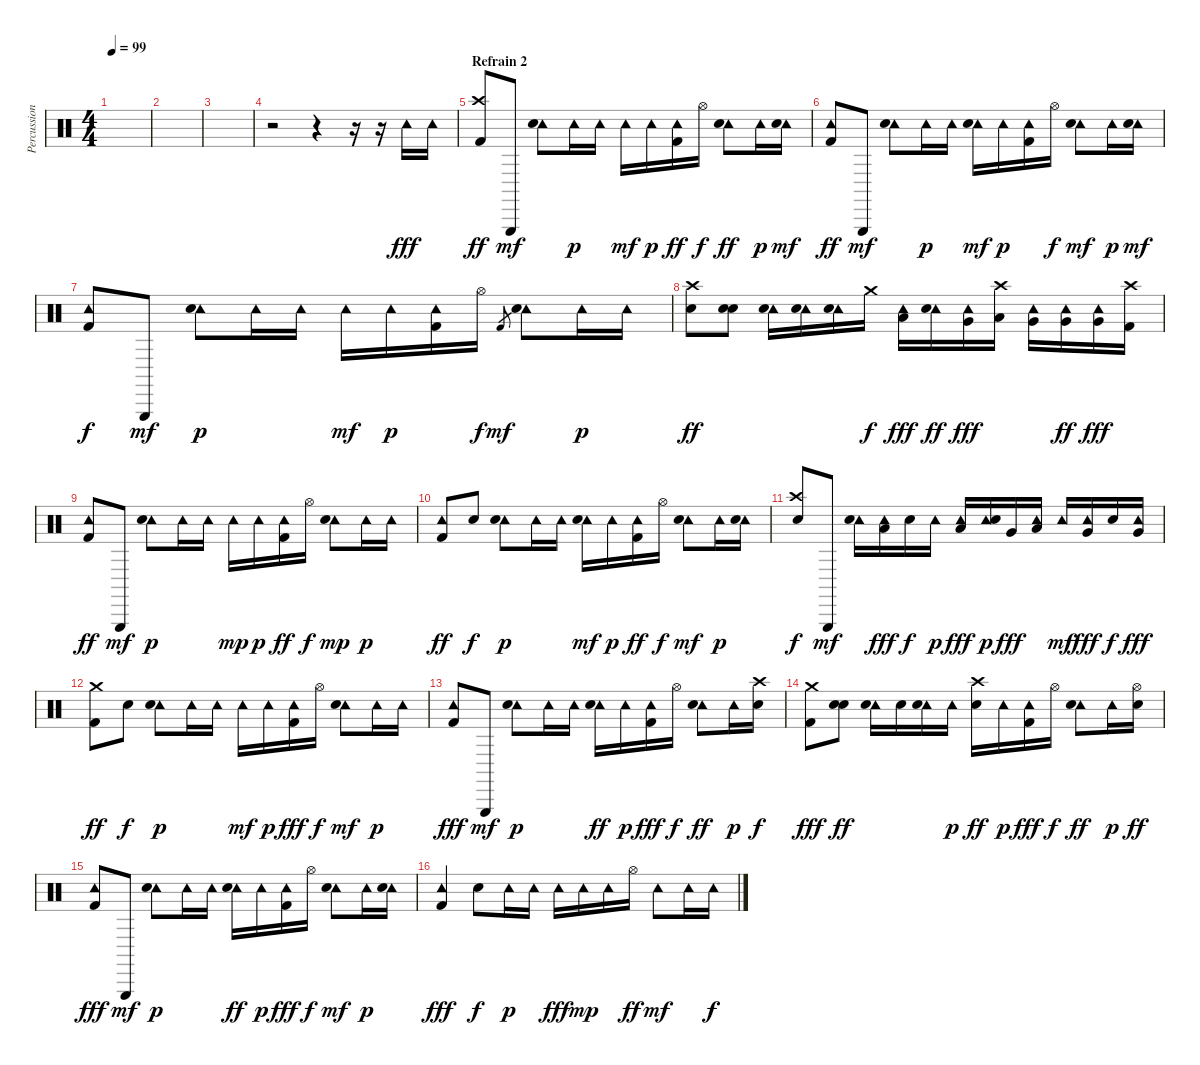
\track ("Percussion" "Percussion") {instrument percussion}
\staff {score}
\articulation defaults
\ts (4 4)
\tempo 99
\clef neutral
\ks c
|
|
|
r.2 r.4 r.16 r.16 "Tambourine (hit)".16{dy fff volume 5} "Tambourine (hit)".16 |
\section ("" "Refrain 2")
("Crash high (hit)" "Kick (hit) 2").8{dy ff volume 9} "Triangle (hit)".8{dy mf} ("Tambourine (hit)" "Snare (hit) 2").8 "Tambourine (hit)".16{dy p} "Tambourine (hit)".16 "Tambourine (hit)".16{dy mf} "Tambourine (hit)".16{dy p} ("Tambourine (hit)" "Kick (hit) 2").16{dy ff} "Hi-Hat (open)".16{dy f} ("Tambourine (hit)" "Snare (hit) 2").8{dy ff} "Tambourine (hit)".16{dy p} ("Tambourine (hit)" "Electric Snare (hit)").16{dy mf} |
("Tambourine (hit)" "Kick (hit) 2").8{dy ff} "Triangle (hit)".8{dy mf} ("Tambourine (hit)" "Snare (hit) 2").8 "Tambourine (hit)".16{dy p} "Tambourine (hit)".16 ("Tambourine (hit)" "Snare (hit) 2").16{dy mf} "Tambourine (hit)".16{dy p} ("Tambourine (hit)" "Kick (hit) 2").16 "Hi-Hat (open)".16{dy f} ("Tambourine (hit)" "Snare (hit) 2").8{dy mf} "Tambourine (hit)".16{dy p} ("Tambourine (hit)" "Electric Snare (hit)").16{dy mf} |
("Tambourine (hit)" "Kick (hit) 2").8{dy f} "Triangle (hit)".8{dy mf} ("Tambourine (hit)" "Snare (hit) 2").8{dy p} "Tambourine (hit)".16 "Tambourine (hit)".16 "Tambourine (hit)".16{dy mf} "Tambourine (hit)".16{dy p} ("Tambourine (hit)" "Kick (hit) 2").16 "Hi-Hat (open)".16{dy f} "Kick (hit) 2".8{gr dy mf} ("Tambourine (hit)" "Snare (hit) 2").8 "Tambourine (hit)".16{dy p} "Tambourine (hit)".16 |
("Crash high (hit)" "Snare (hit) 2").8{dy ff} ("Metronome (bell)" "Electric Snare (hit)").8 ("Tambourine (hit)" "Electric Snare (hit)").16 ("Tambourine (hit)" "Electric Snare (hit)").16 ("Tambourine (hit)" "Electric Snare (hit)").16 "Crash medium (hit)".16{dy f} ("Tambourine (hit)" "Low Tom (hit)").16{dy fff} ("Tambourine (hit)" "Electric Snare (hit)").16{dy ff} ("Tambourine (hit)" "Very Low Tom (hit)").16{dy fff} ("Crash high (hit)"{pm} "Low Tom (hit)").16 ("Tambourine (hit)" "Very Low Tom (hit)").16 ("Tambourine (hit)" "Very Low Tom (hit)").16{dy ff} ("Tambourine (hit)" "Very Low Tom (hit)").16{dy fff} ("Crash high (hit)" "Kick (hit) 2").16 |
("Tambourine (hit)" "Kick (hit) 2").8{dy ff} "Triangle (hit)".8{dy mf} ("Tambourine (hit)" "Snare (hit) 2").8{dy p} "Tambourine (hit)".16 "Tambourine (hit)".16 "Tambourine (hit)".16{dy mp} "Tambourine (hit)".16{dy p} ("Tambourine (hit)" "Kick (hit) 2").16{dy ff} "Hi-Hat (open)".16{dy f} ("Tambourine (hit)" "Snare (hit) 2").8{dy mp} "Tambourine (hit)".16{dy p} "Tambourine (hit)".16 |
("Tambourine (hit)" "Kick (hit) 2").8{dy ff} "Metronome (bell)".8{dy f} ("Tambourine (hit)" "Snare (hit) 2").8{dy p} "Tambourine (hit)".16 "Tambourine (hit)".16 ("Tambourine (hit)" "Snare (hit) 2").16{dy mf} "Tambourine (hit)".16{dy p} ("Tambourine (hit)" "Kick (hit) 2").16{dy ff} "Hi-Hat (open)".16{dy f} ("Tambourine (hit)" "Snare (hit) 2").8{dy mf} "Tambourine (hit)".16{dy p} ("Tambourine (hit)" "Electric Snare (hit)").16 |
("Crash high (hit)" "Snare (hit) 2").8{dy f} "Triangle (hit)".8{dy mf} ("Tambourine (hit)" "Electric Snare (hit)").16 ("Tambourine (hit)" "Low Tom (hit)").16{dy fff} "Electric Snare (hit)".16{dy f} "Tambourine (hit)".16{dy p} ("Tambourine (hit)" "Low Tom (hit)").16{dy fff} ("Tambourine (hit)" "Electric Snare (hit)").16{dy p} "Very Low Tom (hit)".16{dy fff} ("Tambourine (hit)" "Low Tom (hit)").16 "Tambourine (hit)".16{dy mf} ("Tambourine (hit)" "Very Low Tom (hit)").16{dy fff} "Electric Snare (hit)".16{dy f} ("Tambourine (hit)" "Very Low Tom (hit)").16{dy fff} |
("Crash medium (hit)" "Kick (hit) 2").8{dy ff} "Metronome (bell)".8{dy f} ("Tambourine (hit)" "Snare (hit) 2").8{dy p} "Tambourine (hit)".16 "Tambourine (hit)".16 "Tambourine (hit)".16{dy mf} "Tambourine (hit)".16{dy p} ("Tambourine (hit)" "Kick (hit) 2").16{dy fff} "Hi-Hat (open)".16{dy f} ("Tambourine (hit)" "Snare (hit) 2").8{dy mf} "Tambourine (hit)".16{dy p} "Tambourine (hit)".16 |
("Tambourine (hit)" "Kick (hit) 2").8{dy fff} "Triangle (hit)".8{dy mf} ("Tambourine (hit)" "Snare (hit) 2").8{dy p} "Tambourine (hit)".16 "Tambourine (hit)".16 ("Tambourine (hit)" "Snare (hit) 2").16{dy ff} "Tambourine (hit)".16{dy p} ("Tambourine (hit)" "Kick (hit) 2").16{dy fff} "Hi-Hat (open)".16{dy f} ("Tambourine (hit)" "Snare (hit) 2").8{dy ff} "Tambourine (hit)".16{dy p} ("Crash high (hit)" "Snare (hit) 2").16{dy f} |
("Crash medium (hit)" "Kick (hit) 2").8{dy fff} ("Metronome (bell)" "Snare (hit) 2").8{dy ff} ("Tambourine (hit)" "Snare (hit) 2").16 "Electric Snare (hit)".16 ("Tambourine (hit)" "Snare (hit) 2").16 "Tambourine (hit)".16{dy p} ("Crash high (hit)" "Snare (hit) 2").16{dy ff} "Tambourine (hit)".16{dy p} ("Tambourine (hit)" "Kick (hit) 2").16{dy fff} "Hi-Hat (open)".16{dy f} ("Tambourine (hit)" "Snare (hit) 2").8{dy ff} "Tambourine (hit)".16{dy p} ("Hi-Hat (open)" "Snare (hit) 2").16{dy ff} |
("Tambourine (hit)" "Kick (hit) 2").8{dy fff} "Triangle (hit)".8{dy mf} ("Tambourine (hit)" "Snare (hit) 2").8{dy p} "Tambourine (hit)".16 "Tambourine (hit)".16 ("Tambourine (hit)" "Snare (hit) 2").16{dy ff} "Tambourine (hit)".16{dy p} ("Tambourine (hit)" "Kick (hit) 2").16{dy fff} "Hi-Hat (open)".16{dy f} ("Tambourine (hit)" "Snare (hit) 2").8{dy mf} "Tambourine (hit)".16{dy p} ("Tambourine (hit)" "Snare (hit) 2").16 |
("Tambourine (hit)" "Kick (hit) 2").4{dy fff volume 5} "Metronome (bell)".8{dy f} "Tambourine (hit)".16{dy p} "Tambourine (hit)".16 "Tambourine (hit)".16{dy fff} "Tambourine (hit)".16{dy mp} "Tambourine (hit)".16 "Hi-Hat (open)".16{dy ff} "Tambourine (hit)".8{dy mf} "Tambourine (hit)".16 "Tambourine (hit)".16{dy f}
